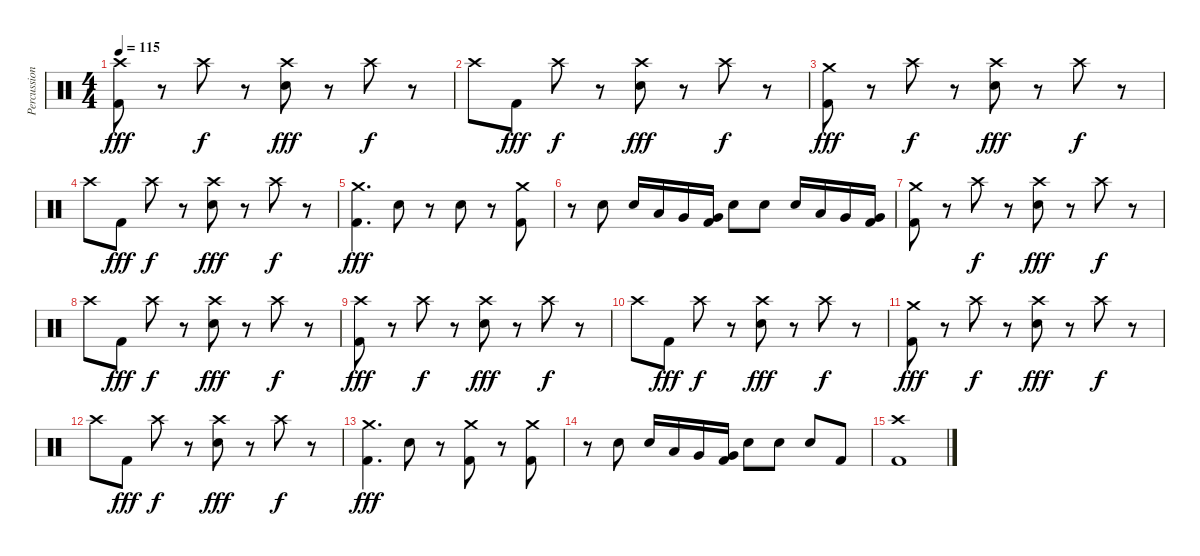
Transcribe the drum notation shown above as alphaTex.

\track ("Percussion" "Percussion") {instrument percussion}
\staff {score}
\articulation defaults
\ts (4 4)
\tempo 115
\clef neutral
\ks c
("Crash high (hit)" "Kick (hit) 2").8{dy fff} r.8 "Crash high (hit)".8{dy f} r.8 ("Crash high (hit)" "Snare (hit) 2").8{dy fff} r.8 "Crash high (hit)".8{dy f} r.8 |
"Crash high (hit)".8 "Kick (hit) 2".8{dy fff} "Crash high (hit)".8{dy f} r.8 ("Crash high (hit)" "Snare (hit) 2").8{dy fff} r.8 "Crash high (hit)".8{dy f} r.8 |
("Crash medium (hit)" "Kick (hit) 2").8{dy fff} r.8 "Crash high (hit)".8{dy f} r.8 ("Crash high (hit)" "Snare (hit) 2").8{dy fff} r.8 "Crash high (hit)".8{dy f} r.8 |
"Crash high (hit)".8 "Kick (hit) 2".8{dy fff} "Crash high (hit)".8{dy f} r.8 ("Crash high (hit)" "Snare (hit) 2").8{dy fff} r.8 "Crash high (hit)".8{dy f} r.8 |
("Crash medium (hit)" "Kick (hit) 2").4{d dy fff} "Snare (hit) 2".8 r.8 "Snare (hit) 2".8 r.8 ("Crash medium (hit)" "Kick (hit) 2").8 |
r.8 "Snare (hit) 2".8 "Snare (hit) 2".16 "Low Tom (hit)".16 "Very Low Tom (hit)".16 ("Very Low Tom (hit)" "Kick (hit) 2").16 "Snare (hit) 2".8 "Snare (hit) 2".8 "Snare (hit) 2".16 "Low Tom (hit)".16 "Very Low Tom (hit)".16 ("Very Low Tom (hit)" "Kick (hit) 2").16 |
("Crash medium (hit)" "Kick (hit) 2").8 r.8 "Crash high (hit)".8{dy f} r.8 ("Crash high (hit)" "Snare (hit) 2").8{dy fff} r.8 "Crash high (hit)".8{dy f} r.8 |
"Crash high (hit)".8 "Kick (hit) 2".8{dy fff} "Crash high (hit)".8{dy f} r.8 ("Crash high (hit)" "Snare (hit) 2").8{dy fff} r.8 "Crash high (hit)".8{dy f} r.8 |
("Crash high (hit)" "Kick (hit) 2").8{dy fff} r.8 "Crash high (hit)".8{dy f} r.8 ("Crash high (hit)" "Snare (hit) 2").8{dy fff} r.8 "Crash high (hit)".8{dy f} r.8 |
"Crash high (hit)".8 "Kick (hit) 2".8{dy fff} "Crash high (hit)".8{dy f} r.8 ("Crash high (hit)" "Snare (hit) 2").8{dy fff} r.8 "Crash high (hit)".8{dy f} r.8 |
("Crash medium (hit)" "Kick (hit) 2").8{dy fff} r.8 "Crash high (hit)".8{dy f} r.8 ("Crash high (hit)" "Snare (hit) 2").8{dy fff} r.8 "Crash high (hit)".8{dy f} r.8 |
"Crash high (hit)".8 "Kick (hit) 2".8{dy fff} "Crash high (hit)".8{dy f} r.8 ("Crash high (hit)" "Snare (hit) 2").8{dy fff} r.8 "Crash high (hit)".8{dy f} r.8 |
("Crash medium (hit)" "Kick (hit) 2").4{d dy fff} "Snare (hit) 2".8 r.8 ("Crash medium (hit)" "Kick (hit) 2").8 r.8 ("Crash medium (hit)" "Kick (hit) 2").8 |
r.8 "Snare (hit) 2".8 "Snare (hit) 2".16 "Low Tom (hit)".16 "Very Low Tom (hit)".16 ("Very Low Tom (hit)" "Kick (hit) 2").16 "Snare (hit) 2".8 "Snare (hit) 2".8 "Snare (hit) 2".8 "Kick (hit) 2".8 |
("Crash high (hit)" "Kick (hit) 2").1
